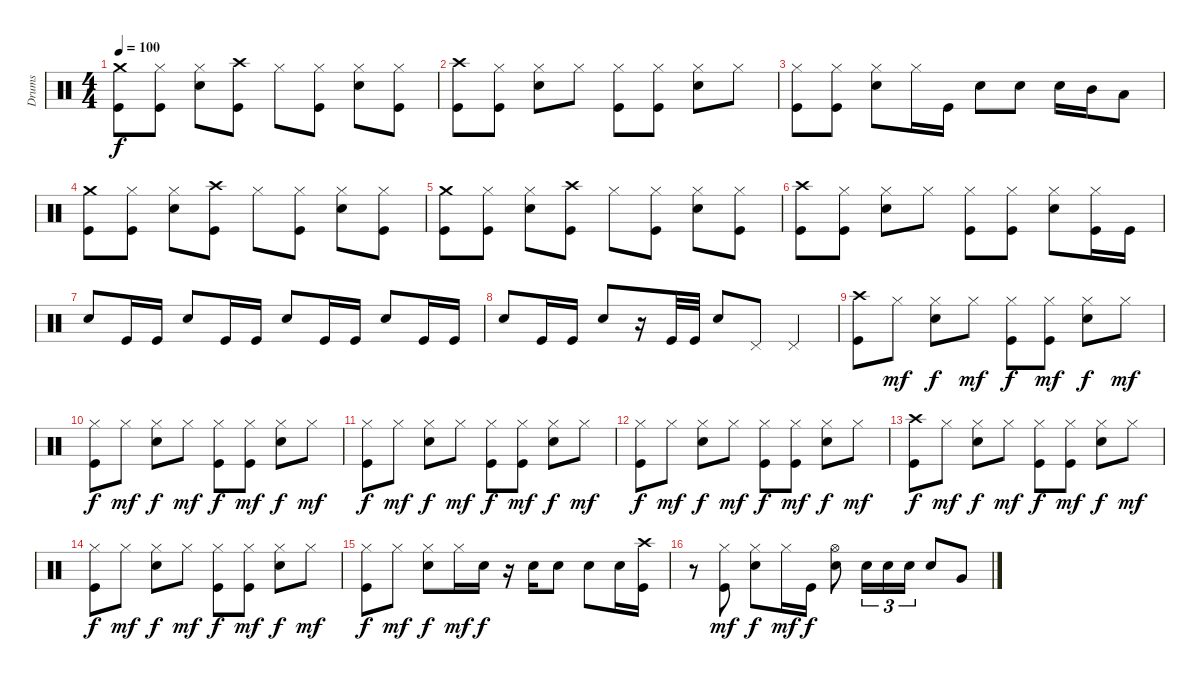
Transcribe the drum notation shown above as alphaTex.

\track ("Drums" "Drums") {instrument percussion}
\staff {score}
\articulation defaults
\ts (4 4)
\tempo 100
\clef neutral
\ks c
("Crash medium (hit)" "Kick (hit)").8{dy f} ("Hi-Hat (closed)" "Kick (hit)").8 ("Hi-Hat (closed)" "Snare (hit) 2").8 ("Crash high (hit)" "Kick (hit)").8 "Hi-Hat (closed)".8 ("Hi-Hat (closed)" "Kick (hit)").8 ("Hi-Hat (closed)" "Snare (hit) 2").8 ("Hi-Hat (closed)" "Kick (hit)").8 |
("Crash high (hit)" "Kick (hit)").8 ("Hi-Hat (closed)" "Kick (hit)").8 ("Hi-Hat (closed)" "Snare (hit) 2").8 "Hi-Hat (closed)".8 ("Hi-Hat (closed)" "Kick (hit)").8 ("Hi-Hat (closed)" "Kick (hit)").8 ("Hi-Hat (closed)" "Snare (hit) 2").8 "Hi-Hat (closed)".8 |
("Hi-Hat (closed)" "Kick (hit)").8 ("Hi-Hat (closed)" "Kick (hit)").8 ("Hi-Hat (closed)" "Snare (hit) 2").8 "Hi-Hat (closed)".16 "Kick (hit)".16 "Snare (hit) 2".8 "Snare (hit) 2".8 "Snare (hit) 2".16 "Mid Tom (hit)".16 "Low Tom (hit)".8 |
("Crash medium (hit)" "Kick (hit)").8 ("Hi-Hat (closed)" "Kick (hit)").8 ("Hi-Hat (closed)" "Snare (hit) 2").8 ("Crash high (hit)" "Kick (hit)").8 "Hi-Hat (closed)".8 ("Hi-Hat (closed)" "Kick (hit)").8 ("Hi-Hat (closed)" "Snare (hit) 2").8 ("Hi-Hat (closed)" "Kick (hit)").8 |
("Crash medium (hit)" "Kick (hit)").8 ("Hi-Hat (closed)" "Kick (hit)").8 ("Hi-Hat (closed)" "Snare (hit) 2").8 ("Crash high (hit)" "Kick (hit)").8 "Hi-Hat (closed)".8 ("Hi-Hat (closed)" "Kick (hit)").8 ("Hi-Hat (closed)" "Snare (hit) 2").8 ("Hi-Hat (closed)" "Kick (hit)").8 |
("Crash high (hit)" "Kick (hit)").8 ("Hi-Hat (closed)" "Kick (hit)").8 ("Hi-Hat (closed)" "Snare (hit) 2").8 "Hi-Hat (closed)".8 ("Hi-Hat (closed)" "Kick (hit)").8 ("Hi-Hat (closed)" "Kick (hit)").8 ("Hi-Hat (closed)" "Snare (hit) 2").8 ("Hi-Hat (closed)" "Kick (hit)").16 "Kick (hit)".16 |
"Snare (hit) 2".8 "Kick (hit)".16 "Kick (hit)".16 "Snare (hit) 2".8 "Kick (hit)".16 "Kick (hit)".16 "Snare (hit) 2".8 "Kick (hit)".16 "Kick (hit)".16 "Snare (hit) 2".8 "Kick (hit)".16 "Kick (hit)".16 |
"Snare (hit) 2".8 "Kick (hit)".16 "Kick (hit)".16 "Snare (hit) 2".8 r.16 "Kick (hit)".32 "Kick (hit)".32 "Snare (hit) 2".8 "Pedal Hi-Hat (hit)".8 "Pedal Hi-Hat (hit)".4 |
("Crash high (hit)" "Kick (hit)").8 "Hi-Hat (closed)".8{dy mf} ("Hi-Hat (closed)" "Snare (hit) 2").8{dy f} "Hi-Hat (closed)".8{dy mf} ("Hi-Hat (closed)" "Kick (hit)").8{dy f} ("Hi-Hat (closed)" "Kick (hit)").8{dy mf} ("Hi-Hat (closed)" "Snare (hit) 2").8{dy f} "Hi-Hat (closed)".8{dy mf} |
("Hi-Hat (closed)" "Kick (hit)").8{dy f} "Hi-Hat (closed)".8{dy mf} ("Hi-Hat (closed)" "Snare (hit) 2").8{dy f} "Hi-Hat (closed)".8{dy mf} ("Hi-Hat (closed)" "Kick (hit)").8{dy f} ("Hi-Hat (closed)" "Kick (hit)").8{dy mf} ("Hi-Hat (closed)" "Snare (hit) 2").8{dy f} "Hi-Hat (closed)".8{dy mf} |
("Hi-Hat (closed)" "Kick (hit)").8{dy f} "Hi-Hat (closed)".8{dy mf} ("Hi-Hat (closed)" "Snare (hit) 2").8{dy f} "Hi-Hat (closed)".8{dy mf} ("Hi-Hat (closed)" "Kick (hit)").8{dy f} ("Hi-Hat (closed)" "Kick (hit)").8{dy mf} ("Hi-Hat (closed)" "Snare (hit) 2").8{dy f} "Hi-Hat (closed)".8{dy mf} |
("Hi-Hat (closed)" "Kick (hit)").8{dy f} "Hi-Hat (closed)".8{dy mf} ("Hi-Hat (closed)" "Snare (hit) 2").8{dy f} "Hi-Hat (closed)".8{dy mf} ("Hi-Hat (closed)" "Kick (hit)").8{dy f} ("Hi-Hat (closed)" "Kick (hit)").8{dy mf} ("Hi-Hat (closed)" "Snare (hit) 2").8{dy f} "Hi-Hat (closed)".8{dy mf} |
("Crash high (hit)" "Kick (hit)").8{dy f} "Hi-Hat (closed)".8{dy mf} ("Hi-Hat (closed)" "Snare (hit) 2").8{dy f} "Hi-Hat (closed)".8{dy mf} ("Hi-Hat (closed)" "Kick (hit)").8{dy f} ("Hi-Hat (closed)" "Kick (hit)").8{dy mf} ("Hi-Hat (closed)" "Snare (hit) 2").8{dy f} "Hi-Hat (closed)".8{dy mf} |
("Hi-Hat (closed)" "Kick (hit)").8{dy f} "Hi-Hat (closed)".8{dy mf} ("Hi-Hat (closed)" "Snare (hit) 2").8{dy f} "Hi-Hat (closed)".8{dy mf} ("Hi-Hat (closed)" "Kick (hit)").8{dy f} ("Hi-Hat (closed)" "Kick (hit)").8{dy mf} ("Hi-Hat (closed)" "Snare (hit) 2").8{dy f} "Hi-Hat (closed)".8{dy mf} |
("Hi-Hat (closed)" "Kick (hit)").8{dy f} "Hi-Hat (closed)".8{dy mf} ("Hi-Hat (closed)" "Snare (hit) 2").8{dy f} "Hi-Hat (closed)".16{dy mf} "Snare (hit) 2".16{dy f} r.16 "Snare (hit) 2".16 "Snare (hit) 2".8 "Snare (hit) 2".8 "Snare (hit) 2".16 ("Crash high (hit)" "Kick (hit)").16 |
r.8 ("Hi-Hat (closed)" "Kick (hit)").8{dy mf} ("Hi-Hat (closed)" "Snare (hit) 2").8{dy f} "Hi-Hat (closed)".16{dy mf} "Kick (hit)".16{dy f} ("Hi-Hat (open)" "Snare (hit) 2").8 "Snare (hit) 2".16{tu (3 2)} "Snare (hit) 2".16{tu (3 2)} "Snare (hit) 2".16{tu (3 2)} "Snare (hit) 2".8 "Very Low Tom (hit)".8
